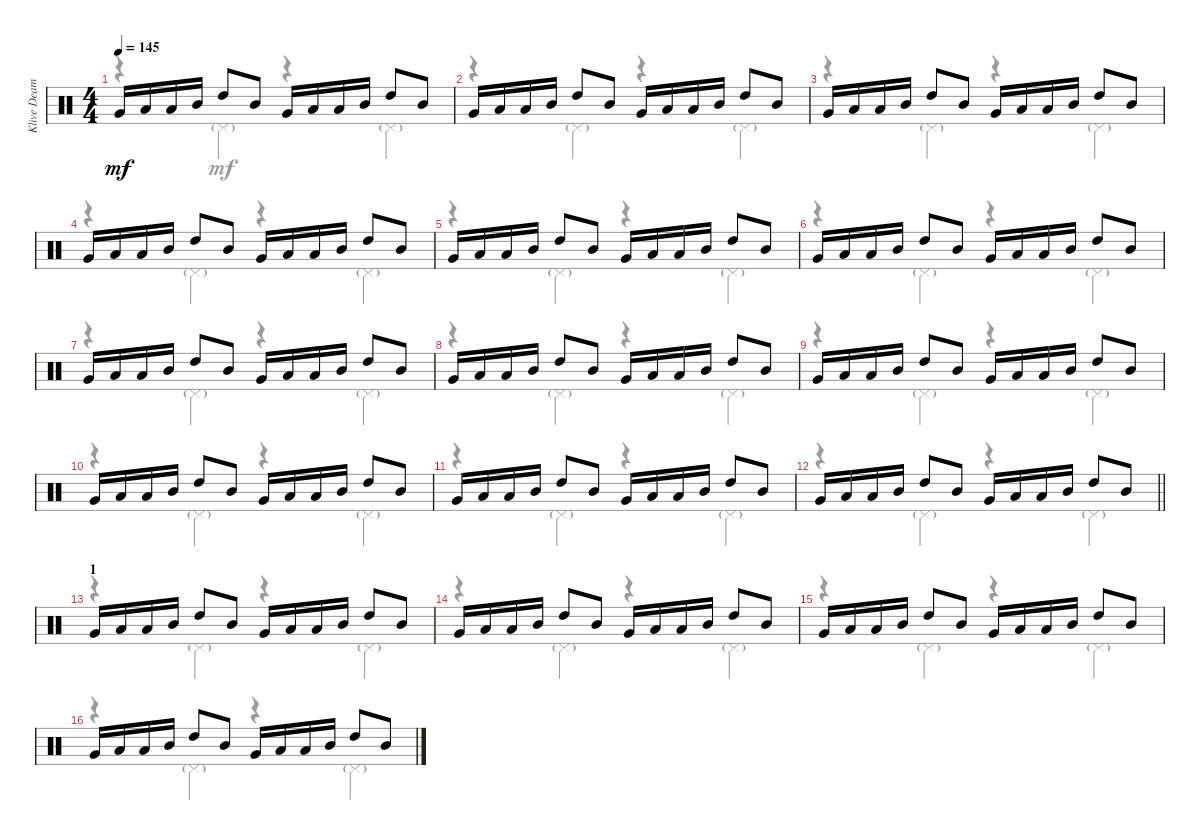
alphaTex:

\track ("Klive Deamer" "Klive Deam") {instrument percussion}
\staff {score}
\articulation defaults
\voice
\ts (4 4)
\tempo 145
\clef neutral
\ks c "Very Low Tom (hit)".16{dy mf} "Low Tom (hit)".16 "Low Tom (hit)".16 "Mid Tom (hit)".16 "High Tom (hit)".8 "Mid Tom (hit)".8 "Very Low Tom (hit)".16 "Low Tom (hit)".16 "Low Tom (hit)".16 "Mid Tom (hit)".16 "High Tom (hit)".8 "Mid Tom (hit)".8
|
"Very Low Tom (hit)".16 "Low Tom (hit)".16 "Low Tom (hit)".16 "Mid Tom (hit)".16 "High Tom (hit)".8 "Mid Tom (hit)".8 "Very Low Tom (hit)".16 "Low Tom (hit)".16 "Low Tom (hit)".16 "Mid Tom (hit)".16 "High Tom (hit)".8 "Mid Tom (hit)".8 |
"Very Low Tom (hit)".16 "Low Tom (hit)".16 "Low Tom (hit)".16 "Mid Tom (hit)".16 "High Tom (hit)".8 "Mid Tom (hit)".8 "Very Low Tom (hit)".16 "Low Tom (hit)".16 "Low Tom (hit)".16 "Mid Tom (hit)".16 "High Tom (hit)".8 "Mid Tom (hit)".8 |
"Very Low Tom (hit)".16 "Low Tom (hit)".16 "Low Tom (hit)".16 "Mid Tom (hit)".16 "High Tom (hit)".8 "Mid Tom (hit)".8 "Very Low Tom (hit)".16 "Low Tom (hit)".16 "Low Tom (hit)".16 "Mid Tom (hit)".16 "High Tom (hit)".8 "Mid Tom (hit)".8 |
"Very Low Tom (hit)".16 "Low Tom (hit)".16 "Low Tom (hit)".16 "Mid Tom (hit)".16 "High Tom (hit)".8 "Mid Tom (hit)".8 "Very Low Tom (hit)".16 "Low Tom (hit)".16 "Low Tom (hit)".16 "Mid Tom (hit)".16 "High Tom (hit)".8 "Mid Tom (hit)".8 |
"Very Low Tom (hit)".16 "Low Tom (hit)".16 "Low Tom (hit)".16 "Mid Tom (hit)".16 "High Tom (hit)".8 "Mid Tom (hit)".8 "Very Low Tom (hit)".16 "Low Tom (hit)".16 "Low Tom (hit)".16 "Mid Tom (hit)".16 "High Tom (hit)".8 "Mid Tom (hit)".8 |
"Very Low Tom (hit)".16 "Low Tom (hit)".16 "Low Tom (hit)".16 "Mid Tom (hit)".16 "High Tom (hit)".8 "Mid Tom (hit)".8 "Very Low Tom (hit)".16 "Low Tom (hit)".16 "Low Tom (hit)".16 "Mid Tom (hit)".16 "High Tom (hit)".8 "Mid Tom (hit)".8 |
"Very Low Tom (hit)".16 "Low Tom (hit)".16 "Low Tom (hit)".16 "Mid Tom (hit)".16 "High Tom (hit)".8 "Mid Tom (hit)".8 "Very Low Tom (hit)".16 "Low Tom (hit)".16 "Low Tom (hit)".16 "Mid Tom (hit)".16 "High Tom (hit)".8 "Mid Tom (hit)".8 |
"Very Low Tom (hit)".16 "Low Tom (hit)".16 "Low Tom (hit)".16 "Mid Tom (hit)".16 "High Tom (hit)".8 "Mid Tom (hit)".8 "Very Low Tom (hit)".16 "Low Tom (hit)".16 "Low Tom (hit)".16 "Mid Tom (hit)".16 "High Tom (hit)".8 "Mid Tom (hit)".8 |
"Very Low Tom (hit)".16 "Low Tom (hit)".16 "Low Tom (hit)".16 "Mid Tom (hit)".16 "High Tom (hit)".8 "Mid Tom (hit)".8 "Very Low Tom (hit)".16 "Low Tom (hit)".16 "Low Tom (hit)".16 "Mid Tom (hit)".16 "High Tom (hit)".8 "Mid Tom (hit)".8 |
"Very Low Tom (hit)".16 "Low Tom (hit)".16 "Low Tom (hit)".16 "Mid Tom (hit)".16 "High Tom (hit)".8 "Mid Tom (hit)".8 "Very Low Tom (hit)".16 "Low Tom (hit)".16 "Low Tom (hit)".16 "Mid Tom (hit)".16 "High Tom (hit)".8 "Mid Tom (hit)".8 |
\barLineRight lightlight "Very Low Tom (hit)".16 "Low Tom (hit)".16 "Low Tom (hit)".16 "Mid Tom (hit)".16 "High Tom (hit)".8 "Mid Tom (hit)".8 "Very Low Tom (hit)".16 "Low Tom (hit)".16 "Low Tom (hit)".16 "Mid Tom (hit)".16 "High Tom (hit)".8 "Mid Tom (hit)".8
|
\section ("" "1")
"Very Low Tom (hit)".16 "Low Tom (hit)".16 "Low Tom (hit)".16 "Mid Tom (hit)".16 "High Tom (hit)".8 "Mid Tom (hit)".8 "Very Low Tom (hit)".16 "Low Tom (hit)".16 "Low Tom (hit)".16 "Mid Tom (hit)".16 "High Tom (hit)".8 "Mid Tom (hit)".8 |
"Very Low Tom (hit)".16 "Low Tom (hit)".16 "Low Tom (hit)".16 "Mid Tom (hit)".16 "High Tom (hit)".8 "Mid Tom (hit)".8 "Very Low Tom (hit)".16 "Low Tom (hit)".16 "Low Tom (hit)".16 "Mid Tom (hit)".16 "High Tom (hit)".8 "Mid Tom (hit)".8 |
"Very Low Tom (hit)".16 "Low Tom (hit)".16 "Low Tom (hit)".16 "Mid Tom (hit)".16 "High Tom (hit)".8 "Mid Tom (hit)".8 "Very Low Tom (hit)".16 "Low Tom (hit)".16 "Low Tom (hit)".16 "Mid Tom (hit)".16 "High Tom (hit)".8 "Mid Tom (hit)".8 |
"Very Low Tom (hit)".16 "Low Tom (hit)".16 "Low Tom (hit)".16 "Mid Tom (hit)".16 "High Tom (hit)".8 "Mid Tom (hit)".8 "Very Low Tom (hit)".16 "Low Tom (hit)".16 "Low Tom (hit)".16 "Mid Tom (hit)".16 "High Tom (hit)".8 "Mid Tom (hit)".8
\voice
\clef neutral
\ottava regular
\simile none
\ks c
r.4{dy mf} "Pedal Hi-Hat (hit)"{g}.4 r.4 "Pedal Hi-Hat (hit)"{g}.4 |
r.4 "Pedal Hi-Hat (hit)"{g}.4 r.4 "Pedal Hi-Hat (hit)"{g}.4 |
r.4 "Pedal Hi-Hat (hit)"{g}.4 r.4 "Pedal Hi-Hat (hit)"{g}.4 |
r.4 "Pedal Hi-Hat (hit)"{g}.4 r.4 "Pedal Hi-Hat (hit)"{g}.4 |
r.4 "Pedal Hi-Hat (hit)"{g}.4 r.4 "Pedal Hi-Hat (hit)"{g}.4 |
r.4 "Pedal Hi-Hat (hit)"{g}.4 r.4 "Pedal Hi-Hat (hit)"{g}.4 |
r.4 "Pedal Hi-Hat (hit)"{g}.4 r.4 "Pedal Hi-Hat (hit)"{g}.4 |
r.4 "Pedal Hi-Hat (hit)"{g}.4 r.4 "Pedal Hi-Hat (hit)"{g}.4 |
r.4 "Pedal Hi-Hat (hit)"{g}.4 r.4 "Pedal Hi-Hat (hit)"{g}.4 |
r.4 "Pedal Hi-Hat (hit)"{g}.4 r.4 "Pedal Hi-Hat (hit)"{g}.4 |
r.4 "Pedal Hi-Hat (hit)"{g}.4 r.4 "Pedal Hi-Hat (hit)"{g}.4 |
\barLineRight lightlight
r.4 "Pedal Hi-Hat (hit)"{g}.4 r.4 "Pedal Hi-Hat (hit)"{g}.4 |
r.4 "Pedal Hi-Hat (hit)"{g}.4 r.4 "Pedal Hi-Hat (hit)"{g}.4 |
r.4 "Pedal Hi-Hat (hit)"{g}.4 r.4 "Pedal Hi-Hat (hit)"{g}.4 |
r.4 "Pedal Hi-Hat (hit)"{g}.4 r.4 "Pedal Hi-Hat (hit)"{g}.4 |
r.4 "Pedal Hi-Hat (hit)"{g}.4 r.4 "Pedal Hi-Hat (hit)"{g}.4
